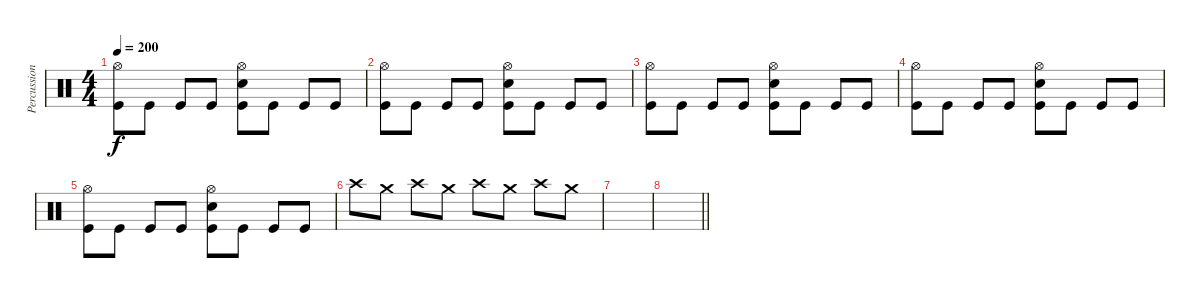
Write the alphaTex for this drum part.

\track ("Percussion" "Percussion") {instrument percussion}
\staff {score}
\articulation defaults
\ts (4 4)
\tempo 200
\clef neutral
\ks c
("Hi-Hat (open)" "Kick (hit)").8{dy f} "Kick (hit)".8 "Kick (hit)".8 "Kick (hit)".8 ("Snare (hit) 2" "Hi-Hat (open)" "Kick (hit)").8 "Kick (hit)".8 "Kick (hit)".8 "Kick (hit)".8 |
("Hi-Hat (open)" "Kick (hit)").8 "Kick (hit)".8 "Kick (hit)".8 "Kick (hit)".8 ("Snare (hit) 2" "Hi-Hat (open)" "Kick (hit)").8 "Kick (hit)".8 "Kick (hit)".8 "Kick (hit)".8 |
("Hi-Hat (open)" "Kick (hit)").8 "Kick (hit)".8 "Kick (hit)".8 "Kick (hit)".8 ("Snare (hit) 2" "Hi-Hat (open)" "Kick (hit)").8 "Kick (hit)".8 "Kick (hit)".8 "Kick (hit)".8 |
("Hi-Hat (open)" "Kick (hit)").8 "Kick (hit)".8 "Kick (hit)".8 "Kick (hit)".8 ("Snare (hit) 2" "Hi-Hat (open)" "Kick (hit)").8 "Kick (hit)".8 "Kick (hit)".8 "Kick (hit)".8 |
("Hi-Hat (open)" "Kick (hit)").8 "Kick (hit)".8 "Kick (hit)".8 "Kick (hit)".8 ("Snare (hit) 2" "Hi-Hat (open)" "Kick (hit)").8 "Kick (hit)".8 "Kick (hit)".8 "Kick (hit)".8 |
"Crash high (hit)".8 "Crash medium (hit)".8 "Crash high (hit)".8 "Crash medium (hit)".8 "Crash high (hit)".8 "Crash medium (hit)".8 "Crash high (hit)".8 "Crash medium (hit)".8 |
|
\barLineRight lightlight
